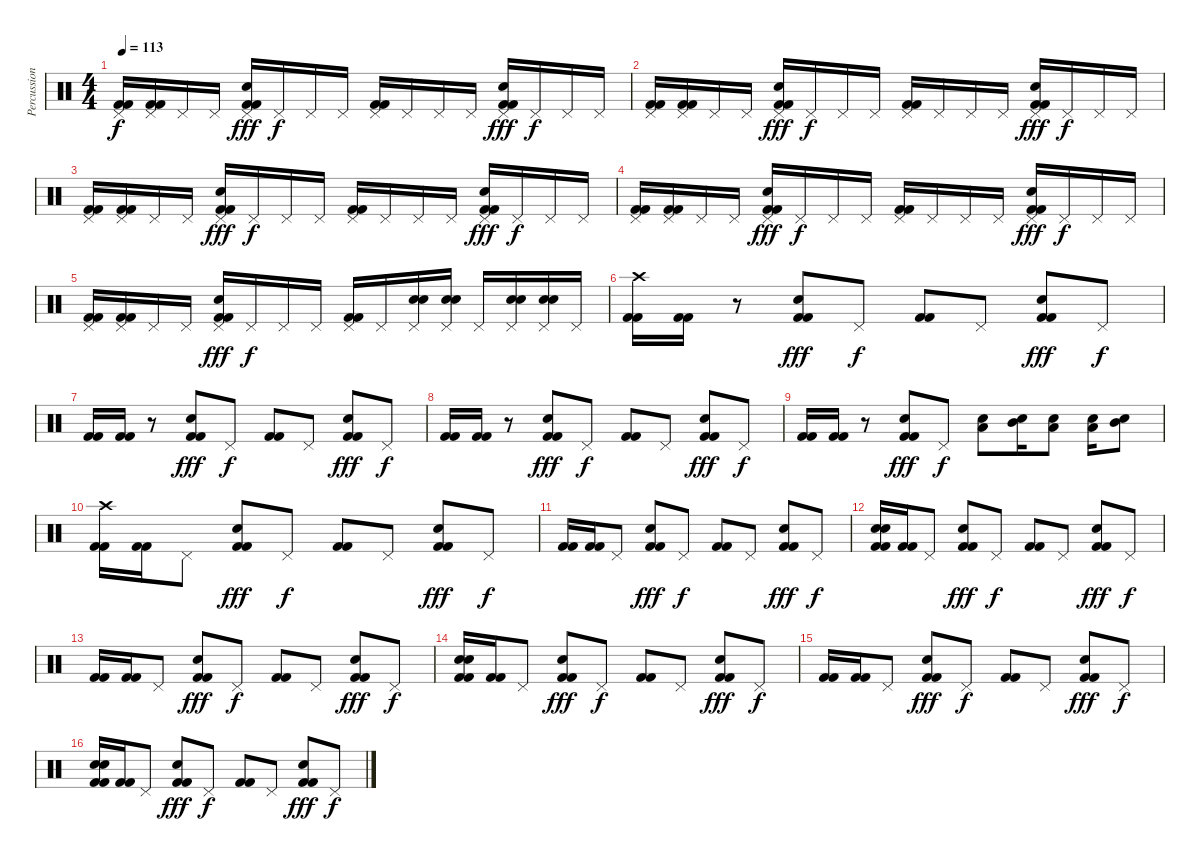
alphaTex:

\track ("Percussion" "Percussion") {instrument percussion}
\staff {score}
\articulation defaults
\ts (4 4)
\tempo 113
\clef neutral
\ks c
("Pedal Hi-Hat (hit)" "Kick (hit) 2" "Kick (hit) 2").16{dy f} ("Pedal Hi-Hat (hit)" "Kick (hit) 2" "Kick (hit) 2").16 "Pedal Hi-Hat (hit)".16 "Pedal Hi-Hat (hit)".16 ("Pedal Hi-Hat (hit)" "Electric Snare (hit)" "Kick (hit) 2" "Kick (hit) 2").16{dy fff} "Pedal Hi-Hat (hit)".16{dy f} "Pedal Hi-Hat (hit)".16 "Pedal Hi-Hat (hit)".16 ("Pedal Hi-Hat (hit)" "Kick (hit) 2" "Kick (hit) 2").16 "Pedal Hi-Hat (hit)".16 "Pedal Hi-Hat (hit)".16 "Pedal Hi-Hat (hit)".16 ("Pedal Hi-Hat (hit)" "Electric Snare (hit)" "Kick (hit) 2" "Kick (hit) 2").16{dy fff} "Pedal Hi-Hat (hit)".16{dy f} "Pedal Hi-Hat (hit)".16 "Pedal Hi-Hat (hit)".16 |
("Pedal Hi-Hat (hit)" "Kick (hit) 2" "Kick (hit) 2").16 ("Pedal Hi-Hat (hit)" "Kick (hit) 2" "Kick (hit) 2").16 "Pedal Hi-Hat (hit)".16 "Pedal Hi-Hat (hit)".16 ("Pedal Hi-Hat (hit)" "Electric Snare (hit)" "Kick (hit) 2" "Kick (hit) 2").16{dy fff} "Pedal Hi-Hat (hit)".16{dy f} "Pedal Hi-Hat (hit)".16 "Pedal Hi-Hat (hit)".16 ("Pedal Hi-Hat (hit)" "Kick (hit) 2" "Kick (hit) 2").16 "Pedal Hi-Hat (hit)".16 "Pedal Hi-Hat (hit)".16 "Pedal Hi-Hat (hit)".16 ("Pedal Hi-Hat (hit)" "Electric Snare (hit)" "Kick (hit) 2" "Kick (hit) 2").16{dy fff} "Pedal Hi-Hat (hit)".16{dy f} "Pedal Hi-Hat (hit)".16 "Pedal Hi-Hat (hit)".16 |
("Pedal Hi-Hat (hit)" "Kick (hit) 2" "Kick (hit) 2").16 ("Pedal Hi-Hat (hit)" "Kick (hit) 2" "Kick (hit) 2").16 "Pedal Hi-Hat (hit)".16 "Pedal Hi-Hat (hit)".16 ("Pedal Hi-Hat (hit)" "Electric Snare (hit)" "Kick (hit) 2" "Kick (hit) 2").16{dy fff} "Pedal Hi-Hat (hit)".16{dy f} "Pedal Hi-Hat (hit)".16 "Pedal Hi-Hat (hit)".16 ("Pedal Hi-Hat (hit)" "Kick (hit) 2" "Kick (hit) 2").16 "Pedal Hi-Hat (hit)".16 "Pedal Hi-Hat (hit)".16 "Pedal Hi-Hat (hit)".16 ("Pedal Hi-Hat (hit)" "Electric Snare (hit)" "Kick (hit) 2" "Kick (hit) 2").16{dy fff} "Pedal Hi-Hat (hit)".16{dy f} "Pedal Hi-Hat (hit)".16 "Pedal Hi-Hat (hit)".16 |
("Pedal Hi-Hat (hit)" "Kick (hit) 2" "Kick (hit) 2").16 ("Pedal Hi-Hat (hit)" "Kick (hit) 2" "Kick (hit) 2").16 "Pedal Hi-Hat (hit)".16 "Pedal Hi-Hat (hit)".16 ("Pedal Hi-Hat (hit)" "Electric Snare (hit)" "Kick (hit) 2" "Kick (hit) 2").16{dy fff} "Pedal Hi-Hat (hit)".16{dy f} "Pedal Hi-Hat (hit)".16 "Pedal Hi-Hat (hit)".16 ("Pedal Hi-Hat (hit)" "Kick (hit) 2" "Kick (hit) 2").16 "Pedal Hi-Hat (hit)".16 "Pedal Hi-Hat (hit)".16 "Pedal Hi-Hat (hit)".16 ("Pedal Hi-Hat (hit)" "Electric Snare (hit)" "Kick (hit) 2" "Kick (hit) 2").16{dy fff} "Pedal Hi-Hat (hit)".16{dy f} "Pedal Hi-Hat (hit)".16 "Pedal Hi-Hat (hit)".16 |
("Pedal Hi-Hat (hit)" "Kick (hit) 2" "Kick (hit) 2").16 ("Pedal Hi-Hat (hit)" "Kick (hit) 2" "Kick (hit) 2").16 "Pedal Hi-Hat (hit)".16 "Pedal Hi-Hat (hit)".16 ("Pedal Hi-Hat (hit)" "Electric Snare (hit)" "Kick (hit) 2" "Kick (hit) 2").16{dy fff} "Pedal Hi-Hat (hit)".16{dy f} "Pedal Hi-Hat (hit)".16 "Pedal Hi-Hat (hit)".16 ("Pedal Hi-Hat (hit)" "Kick (hit) 2" "Kick (hit) 2").16 "Pedal Hi-Hat (hit)".16 ("Pedal Hi-Hat (hit)" "Electric Snare (hit)" "Electric Snare (hit)").16 ("Pedal Hi-Hat (hit)" "Electric Snare (hit)" "Electric Snare (hit)").16 "Pedal Hi-Hat (hit)".16 ("Pedal Hi-Hat (hit)" "Electric Snare (hit)" "Electric Snare (hit)").16 ("Pedal Hi-Hat (hit)" "Electric Snare (hit)" "Electric Snare (hit)").16 "Pedal Hi-Hat (hit)".16 |
("Crash high (hit)" "Kick (hit) 2" "Kick (hit) 2").16 ("Kick (hit) 2" "Kick (hit) 2").16 r.8 ("Electric Snare (hit)" "Kick (hit) 2" "Kick (hit) 2").8{dy fff} "Pedal Hi-Hat (hit)".8{dy f} ("Kick (hit) 2" "Kick (hit) 2").8 "Pedal Hi-Hat (hit)".8 ("Electric Snare (hit)" "Kick (hit) 2" "Kick (hit) 2").8{dy fff} "Pedal Hi-Hat (hit)".8{dy f} |
("Kick (hit) 2" "Kick (hit) 2").16 ("Kick (hit) 2" "Kick (hit) 2").16 r.8 ("Electric Snare (hit)" "Kick (hit) 2" "Kick (hit) 2").8{dy fff} "Pedal Hi-Hat (hit)".8{dy f} ("Kick (hit) 2" "Kick (hit) 2").8 "Pedal Hi-Hat (hit)".8 ("Electric Snare (hit)" "Kick (hit) 2" "Kick (hit) 2").8{dy fff} "Pedal Hi-Hat (hit)".8{dy f} |
("Kick (hit) 2" "Kick (hit) 2").16 ("Kick (hit) 2" "Kick (hit) 2").16 r.8 ("Electric Snare (hit)" "Kick (hit) 2" "Kick (hit) 2").8{dy fff} "Pedal Hi-Hat (hit)".8{dy f} ("Kick (hit) 2" "Kick (hit) 2").8 "Pedal Hi-Hat (hit)".8 ("Electric Snare (hit)" "Kick (hit) 2" "Kick (hit) 2").8{dy fff} "Pedal Hi-Hat (hit)".8{dy f} |
("Kick (hit) 2" "Kick (hit) 2").16 ("Kick (hit) 2" "Kick (hit) 2").16 r.8 ("Electric Snare (hit)" "Kick (hit) 2" "Kick (hit) 2").8{dy fff} "Pedal Hi-Hat (hit)".8{dy f} ("Electric Snare (hit)" "Low Tom (hit)").8 ("Electric Snare (hit)" "Mid Tom (hit)").16 ("Electric Snare (hit)" "Low Tom (hit)").8 ("Electric Snare (hit)" "Low Tom (hit)").16 ("Electric Snare (hit)" "Mid Tom (hit)").8 |
("Crash high (hit)" "Kick (hit) 2" "Kick (hit) 2").16 ("Kick (hit) 2" "Kick (hit) 2").16 "Pedal Hi-Hat (hit)".8 ("Electric Snare (hit)" "Kick (hit) 2" "Kick (hit) 2").8{dy fff} "Pedal Hi-Hat (hit)".8{dy f} ("Kick (hit) 2" "Kick (hit) 2").8 "Pedal Hi-Hat (hit)".8 ("Electric Snare (hit)" "Kick (hit) 2" "Kick (hit) 2").8{dy fff} "Pedal Hi-Hat (hit)".8{dy f} |
("Kick (hit) 2" "Kick (hit) 2").16 ("Kick (hit) 2" "Kick (hit) 2").16 "Pedal Hi-Hat (hit)".8 ("Electric Snare (hit)" "Kick (hit) 2" "Kick (hit) 2").8{dy fff} "Pedal Hi-Hat (hit)".8{dy f} ("Kick (hit) 2" "Kick (hit) 2").8 "Pedal Hi-Hat (hit)".8 ("Electric Snare (hit)" "Kick (hit) 2" "Kick (hit) 2").8{dy fff} "Pedal Hi-Hat (hit)".8{dy f} |
("Hand Clap (hit)" "Kick (hit) 2" "Kick (hit) 2" "Hand Clap (hit)").16 ("Kick (hit) 2" "Kick (hit) 2").16 "Pedal Hi-Hat (hit)".8 ("Electric Snare (hit)" "Kick (hit) 2" "Kick (hit) 2").8{dy fff} "Pedal Hi-Hat (hit)".8{dy f} ("Kick (hit) 2" "Kick (hit) 2").8 "Pedal Hi-Hat (hit)".8 ("Electric Snare (hit)" "Kick (hit) 2" "Kick (hit) 2").8{dy fff} "Pedal Hi-Hat (hit)".8{dy f} |
("Kick (hit) 2" "Kick (hit) 2").16 ("Kick (hit) 2" "Kick (hit) 2").16 "Pedal Hi-Hat (hit)".8 ("Electric Snare (hit)" "Kick (hit) 2" "Kick (hit) 2").8{dy fff} "Pedal Hi-Hat (hit)".8{dy f} ("Kick (hit) 2" "Kick (hit) 2").8 "Pedal Hi-Hat (hit)".8 ("Electric Snare (hit)" "Kick (hit) 2" "Kick (hit) 2").8{dy fff} "Pedal Hi-Hat (hit)".8{dy f} |
("Hand Clap (hit)" "Kick (hit) 2" "Kick (hit) 2" "Hand Clap (hit)").16 ("Kick (hit) 2" "Kick (hit) 2").16 "Pedal Hi-Hat (hit)".8 ("Electric Snare (hit)" "Kick (hit) 2" "Kick (hit) 2").8{dy fff} "Pedal Hi-Hat (hit)".8{dy f} ("Kick (hit) 2" "Kick (hit) 2").8 "Pedal Hi-Hat (hit)".8 ("Electric Snare (hit)" "Kick (hit) 2" "Kick (hit) 2").8{dy fff} "Pedal Hi-Hat (hit)".8{dy f} |
("Kick (hit) 2" "Kick (hit) 2").16 ("Kick (hit) 2" "Kick (hit) 2").16 "Pedal Hi-Hat (hit)".8 ("Electric Snare (hit)" "Kick (hit) 2" "Kick (hit) 2").8{dy fff} "Pedal Hi-Hat (hit)".8{dy f} ("Kick (hit) 2" "Kick (hit) 2").8 "Pedal Hi-Hat (hit)".8 ("Electric Snare (hit)" "Kick (hit) 2" "Kick (hit) 2").8{dy fff} "Pedal Hi-Hat (hit)".8{dy f} |
("Hand Clap (hit)" "Kick (hit) 2" "Kick (hit) 2" "Hand Clap (hit)").16 ("Kick (hit) 2" "Kick (hit) 2").16 "Pedal Hi-Hat (hit)".8 ("Electric Snare (hit)" "Kick (hit) 2" "Kick (hit) 2").8{dy fff} "Pedal Hi-Hat (hit)".8{dy f} ("Kick (hit) 2" "Kick (hit) 2").8 "Pedal Hi-Hat (hit)".8 ("Electric Snare (hit)" "Kick (hit) 2" "Kick (hit) 2").8{dy fff} "Pedal Hi-Hat (hit)".8{dy f}
